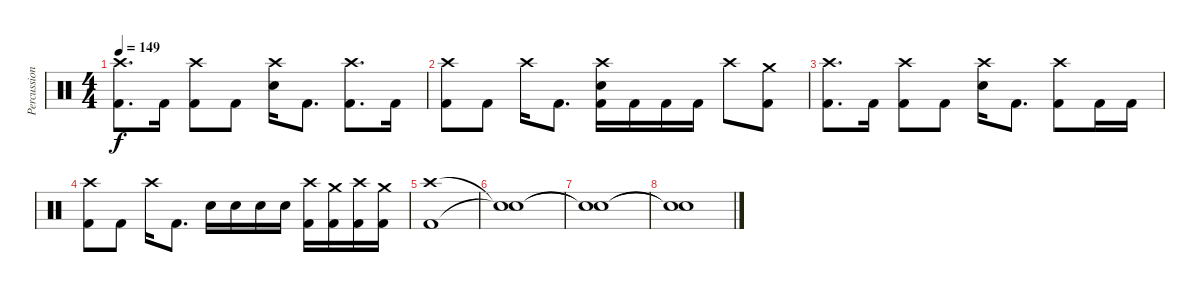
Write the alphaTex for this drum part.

\track ("Percussions" "Percussion") {instrument percussion}
\staff {score}
\articulation defaults
\ts (4 4)
\tempo 149
\clef neutral
\ks c
("Crash high (hit)" "Kick (hit) 2").8{d dy f} "Kick (hit) 2".16 ("Crash high (hit)" "Kick (hit) 2").8 "Kick (hit) 2".8 ("Crash high (hit)" "Snare (hit) 2").16 "Kick (hit) 2".8{d} ("Crash high (hit)" "Kick (hit) 2").8{d} "Kick (hit) 2".16 |
("Crash high (hit)" "Kick (hit) 2").8 "Kick (hit) 2".8 "Crash high (hit)".16 "Kick (hit) 2".8{d} ("Crash high (hit)" "Snare (hit) 2" "Kick (hit) 2").16 "Kick (hit) 2".16 "Kick (hit) 2".16 "Kick (hit) 2".16 "Crash high (hit)".8 ("Crash medium (hit)" "Kick (hit) 2").8 |
("Crash high (hit)" "Kick (hit) 2").8{d} "Kick (hit) 2".16 ("Crash high (hit)" "Kick (hit) 2").8 "Kick (hit) 2".8 ("Crash high (hit)" "Snare (hit) 2").16 "Kick (hit) 2".8{d} ("Crash high (hit)" "Kick (hit) 2").8 "Kick (hit) 2".16 "Kick (hit) 2".16 |
("Crash high (hit)" "Kick (hit) 2").8 "Kick (hit) 2".8 "Crash high (hit)".16 "Kick (hit) 2".8{d} "Snare (hit) 2".16 "Snare (hit) 2".16 "Snare (hit) 2".16 "Snare (hit) 2".16 ("Crash high (hit)" "Kick (hit) 2").16 ("Crash medium (hit)" "Kick (hit) 2").16 ("Crash high (hit)" "Kick (hit) 2").16 ("Crash medium (hit)" "Kick (hit) 2").16 |
("Crash high (hit)" "Kick (hit) 2").1 |
("Snare (hit)"{t} "Snare (hit)"{t}).1 |
("Snare (hit)"{t} "Snare (hit)"{t}).1 |
("Snare (hit)"{t} "Snare (hit)"{t}).1
